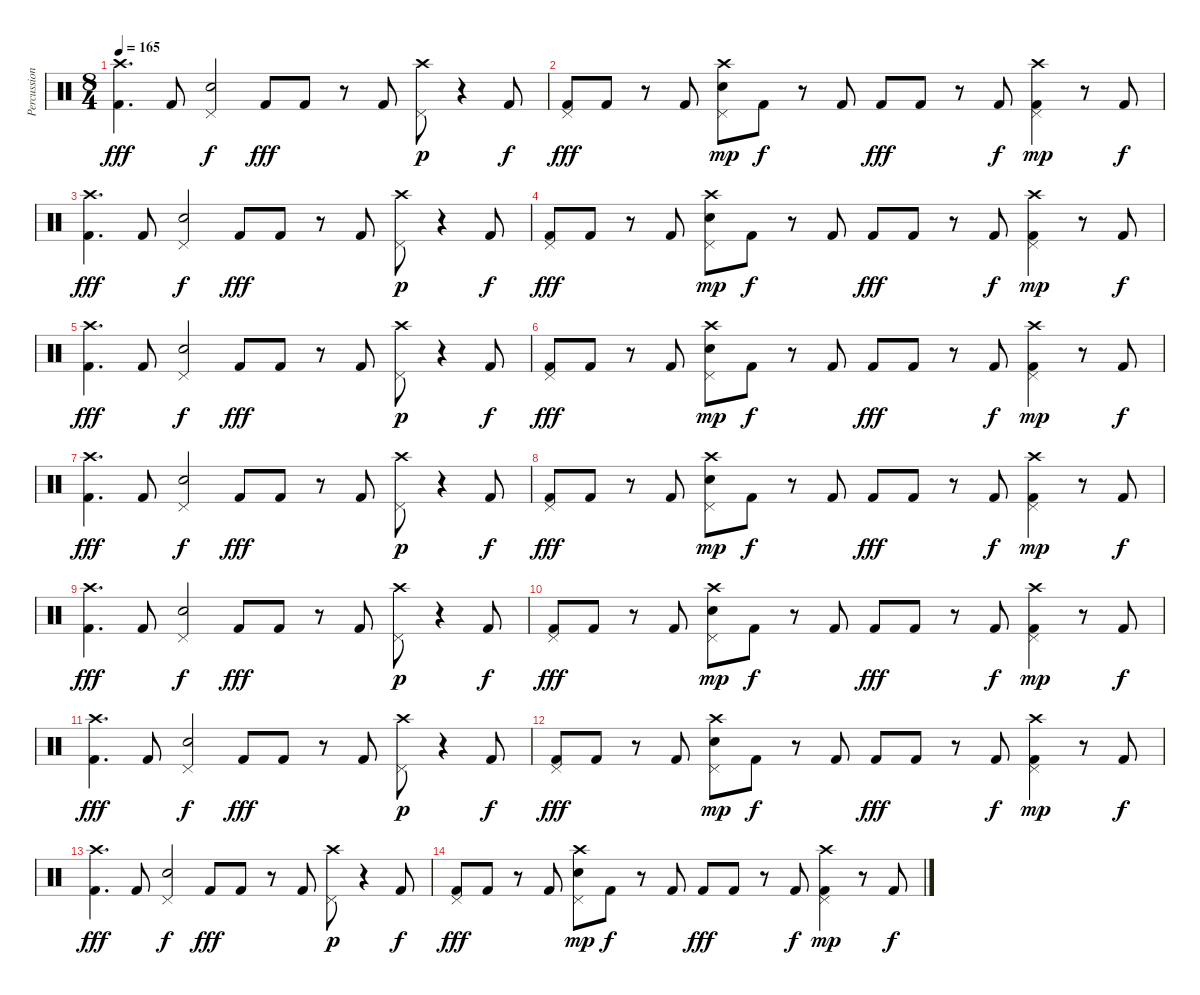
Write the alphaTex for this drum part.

\track ("Percussion" "Percussion") {instrument percussion}
\staff {score}
\articulation defaults
\ts (8 4)
\tempo 165
\clef neutral
\ks c
("Crash high (hit)" "Kick (hit) 2").4{d dy fff} "Kick (hit) 2".8 ("Pedal Hi-Hat (hit)" "Snare (hit) 2").2{dy f} "Kick (hit) 2".8{dy fff} "Kick (hit) 2".8 r.8 "Kick (hit) 2".8 ("Crash high (hit)" "Pedal Hi-Hat (hit)").8{dy p} r.4 "Kick (hit) 2".8{dy f} |
("Pedal Hi-Hat (hit)" "Kick (hit) 2").8{dy fff} "Kick (hit) 2".8 r.8 "Kick (hit) 2".8 ("Crash high (hit)" "Pedal Hi-Hat (hit)" "Snare (hit) 2").8{dy mp} "Kick (hit) 2".8{dy f} r.8 "Kick (hit) 2".8 "Kick (hit) 2".8{dy fff} "Kick (hit) 2".8 r.8 "Kick (hit) 2".8{dy f} ("Crash high (hit)" "Pedal Hi-Hat (hit)" "Kick (hit) 2").4{dy mp} r.8 "Kick (hit) 2".8{dy f} |
("Crash high (hit)" "Kick (hit) 2").4{d dy fff} "Kick (hit) 2".8 ("Pedal Hi-Hat (hit)" "Snare (hit) 2").2{dy f} "Kick (hit) 2".8{dy fff} "Kick (hit) 2".8 r.8 "Kick (hit) 2".8 ("Crash high (hit)" "Pedal Hi-Hat (hit)").8{dy p} r.4 "Kick (hit) 2".8{dy f} |
("Pedal Hi-Hat (hit)" "Kick (hit) 2").8{dy fff} "Kick (hit) 2".8 r.8 "Kick (hit) 2".8 ("Crash high (hit)" "Pedal Hi-Hat (hit)" "Snare (hit) 2").8{dy mp} "Kick (hit) 2".8{dy f} r.8 "Kick (hit) 2".8 "Kick (hit) 2".8{dy fff} "Kick (hit) 2".8 r.8 "Kick (hit) 2".8{dy f} ("Crash high (hit)" "Pedal Hi-Hat (hit)" "Kick (hit) 2").4{dy mp} r.8 "Kick (hit) 2".8{dy f} |
("Crash high (hit)" "Kick (hit) 2").4{d dy fff} "Kick (hit) 2".8 ("Pedal Hi-Hat (hit)" "Snare (hit) 2").2{dy f} "Kick (hit) 2".8{dy fff} "Kick (hit) 2".8 r.8 "Kick (hit) 2".8 ("Crash high (hit)" "Pedal Hi-Hat (hit)").8{dy p} r.4 "Kick (hit) 2".8{dy f} |
("Pedal Hi-Hat (hit)" "Kick (hit) 2").8{dy fff} "Kick (hit) 2".8 r.8 "Kick (hit) 2".8 ("Crash high (hit)" "Pedal Hi-Hat (hit)" "Snare (hit) 2").8{dy mp} "Kick (hit) 2".8{dy f} r.8 "Kick (hit) 2".8 "Kick (hit) 2".8{dy fff} "Kick (hit) 2".8 r.8 "Kick (hit) 2".8{dy f} ("Crash high (hit)" "Pedal Hi-Hat (hit)" "Kick (hit) 2").4{dy mp} r.8 "Kick (hit) 2".8{dy f} |
("Crash high (hit)" "Kick (hit) 2").4{d dy fff} "Kick (hit) 2".8 ("Pedal Hi-Hat (hit)" "Snare (hit) 2").2{dy f} "Kick (hit) 2".8{dy fff} "Kick (hit) 2".8 r.8 "Kick (hit) 2".8 ("Crash high (hit)" "Pedal Hi-Hat (hit)").8{dy p} r.4 "Kick (hit) 2".8{dy f} |
("Pedal Hi-Hat (hit)" "Kick (hit) 2").8{dy fff} "Kick (hit) 2".8 r.8 "Kick (hit) 2".8 ("Crash high (hit)" "Pedal Hi-Hat (hit)" "Snare (hit) 2").8{dy mp} "Kick (hit) 2".8{dy f} r.8 "Kick (hit) 2".8 "Kick (hit) 2".8{dy fff} "Kick (hit) 2".8 r.8 "Kick (hit) 2".8{dy f} ("Crash high (hit)" "Pedal Hi-Hat (hit)" "Kick (hit) 2").4{dy mp} r.8 "Kick (hit) 2".8{dy f} |
("Crash high (hit)" "Kick (hit) 2").4{d dy fff} "Kick (hit) 2".8 ("Pedal Hi-Hat (hit)" "Snare (hit) 2").2{dy f} "Kick (hit) 2".8{dy fff} "Kick (hit) 2".8 r.8 "Kick (hit) 2".8 ("Crash high (hit)" "Pedal Hi-Hat (hit)").8{dy p} r.4 "Kick (hit) 2".8{dy f} |
("Pedal Hi-Hat (hit)" "Kick (hit) 2").8{dy fff} "Kick (hit) 2".8 r.8 "Kick (hit) 2".8 ("Crash high (hit)" "Pedal Hi-Hat (hit)" "Snare (hit) 2").8{dy mp} "Kick (hit) 2".8{dy f} r.8 "Kick (hit) 2".8 "Kick (hit) 2".8{dy fff} "Kick (hit) 2".8 r.8 "Kick (hit) 2".8{dy f} ("Crash high (hit)" "Pedal Hi-Hat (hit)" "Kick (hit) 2").4{dy mp} r.8 "Kick (hit) 2".8{dy f} |
("Crash high (hit)" "Kick (hit) 2").4{d dy fff} "Kick (hit) 2".8 ("Pedal Hi-Hat (hit)" "Snare (hit) 2").2{dy f} "Kick (hit) 2".8{dy fff} "Kick (hit) 2".8 r.8 "Kick (hit) 2".8 ("Crash high (hit)" "Pedal Hi-Hat (hit)").8{dy p} r.4 "Kick (hit) 2".8{dy f} |
("Pedal Hi-Hat (hit)" "Kick (hit) 2").8{dy fff} "Kick (hit) 2".8 r.8 "Kick (hit) 2".8 ("Crash high (hit)" "Pedal Hi-Hat (hit)" "Snare (hit) 2").8{dy mp} "Kick (hit) 2".8{dy f} r.8 "Kick (hit) 2".8 "Kick (hit) 2".8{dy fff} "Kick (hit) 2".8 r.8 "Kick (hit) 2".8{dy f} ("Crash high (hit)" "Pedal Hi-Hat (hit)" "Kick (hit) 2").4{dy mp} r.8 "Kick (hit) 2".8{dy f} |
("Crash high (hit)" "Kick (hit) 2").4{d dy fff} "Kick (hit) 2".8 ("Pedal Hi-Hat (hit)" "Snare (hit) 2").2{dy f} "Kick (hit) 2".8{dy fff} "Kick (hit) 2".8 r.8 "Kick (hit) 2".8 ("Crash high (hit)" "Pedal Hi-Hat (hit)").8{dy p} r.4 "Kick (hit) 2".8{dy f} |
("Pedal Hi-Hat (hit)" "Kick (hit) 2").8{dy fff} "Kick (hit) 2".8 r.8 "Kick (hit) 2".8 ("Crash high (hit)" "Pedal Hi-Hat (hit)" "Snare (hit) 2").8{dy mp} "Kick (hit) 2".8{dy f} r.8 "Kick (hit) 2".8 "Kick (hit) 2".8{dy fff} "Kick (hit) 2".8 r.8 "Kick (hit) 2".8{dy f} ("Crash high (hit)" "Pedal Hi-Hat (hit)" "Kick (hit) 2").4{dy mp} r.8 "Kick (hit) 2".8{dy f}
